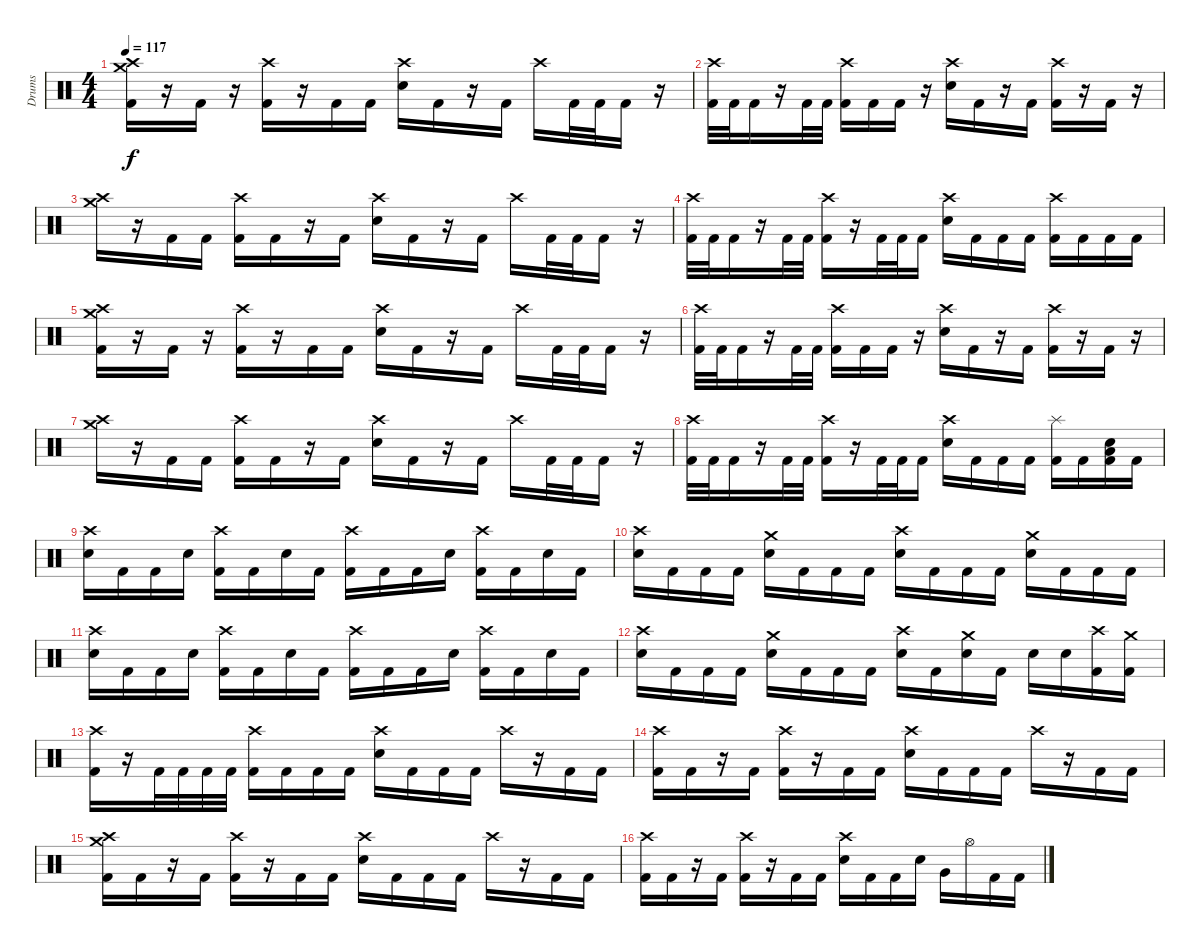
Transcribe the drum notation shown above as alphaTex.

\track ("Drums" "Drums") {instrument percussion}
\staff {score}
\articulation defaults
\ts (4 4)
\tempo 117
\clef neutral
\ks c
("Crash high (hit)" "Crash medium (hit)" "Kick (hit) 2").16{dy f} r.16 "Kick (hit) 2".16 r.16 ("Crash high (hit)" "Kick (hit) 2").16 r.16 "Kick (hit) 2".16 "Kick (hit) 2".16 ("Crash high (hit)" "Snare (hit) 2").16 "Kick (hit) 2".16 r.16 "Kick (hit) 2".16 "Crash high (hit)".16 "Kick (hit) 2".32 "Kick (hit) 2".32 "Kick (hit) 2".16 r.16 |
("Crash high (hit)" "Kick (hit) 2").32 "Kick (hit) 2".32 "Kick (hit) 2".16 r.16 "Kick (hit) 2".32 "Kick (hit) 2".32 ("Crash high (hit)" "Kick (hit) 2").16 "Kick (hit) 2".16 "Kick (hit) 2".16 r.16 ("Crash high (hit)" "Snare (hit) 2").16 "Kick (hit) 2".16 r.16 "Kick (hit) 2".16 ("Crash high (hit)" "Kick (hit) 2").16 r.16 "Kick (hit) 2".16 r.16 |
("Crash high (hit)" "Crash medium (hit)").16 r.16 "Kick (hit) 2".16 "Kick (hit) 2".16 ("Crash high (hit)" "Kick (hit) 2").16 "Kick (hit) 2".16 r.16 "Kick (hit) 2".16 ("Crash high (hit)" "Snare (hit) 2").16 "Kick (hit) 2".16 r.16 "Kick (hit) 2".16 "Crash high (hit)".16 "Kick (hit) 2".32 "Kick (hit) 2".32 "Kick (hit) 2".16 r.16 |
("Crash high (hit)" "Kick (hit) 2").32 "Kick (hit) 2".32 "Kick (hit) 2".16 r.16 "Kick (hit) 2".32 "Kick (hit) 2".32 ("Crash high (hit)" "Kick (hit) 2").16 r.16 "Kick (hit) 2".32 "Kick (hit) 2".32 "Kick (hit) 2".16 ("Crash high (hit)" "Snare (hit) 2").16 "Kick (hit) 2".16 "Kick (hit) 2".16 "Kick (hit) 2".16 ("Crash high (hit)" "Kick (hit) 2").16 "Kick (hit) 2".16 "Kick (hit) 2".16 "Kick (hit) 2".16 |
("Crash high (hit)" "Crash medium (hit)" "Kick (hit) 2").16 r.16 "Kick (hit) 2".16 r.16 ("Crash high (hit)" "Kick (hit) 2").16 r.16 "Kick (hit) 2".16 "Kick (hit) 2".16 ("Crash high (hit)" "Snare (hit) 2").16 "Kick (hit) 2".16 r.16 "Kick (hit) 2".16 "Crash high (hit)".16 "Kick (hit) 2".32 "Kick (hit) 2".32 "Kick (hit) 2".16 r.16 |
("Crash high (hit)" "Kick (hit) 2").32 "Kick (hit) 2".32 "Kick (hit) 2".16 r.16 "Kick (hit) 2".32 "Kick (hit) 2".32 ("Crash high (hit)" "Kick (hit) 2").16 "Kick (hit) 2".16 "Kick (hit) 2".16 r.16 ("Crash high (hit)" "Snare (hit) 2").16 "Kick (hit) 2".16 r.16 "Kick (hit) 2".16 ("Crash high (hit)" "Kick (hit) 2").16 r.16 "Kick (hit) 2".16 r.16 |
("Crash high (hit)" "Crash medium (hit)").16 r.16 "Kick (hit) 2".16 "Kick (hit) 2".16 ("Crash high (hit)" "Kick (hit) 2").16 "Kick (hit) 2".16 r.16 "Kick (hit) 2".16 ("Crash high (hit)" "Snare (hit) 2").16 "Kick (hit) 2".16 r.16 "Kick (hit) 2".16 "Crash high (hit)".16 "Kick (hit) 2".32 "Kick (hit) 2".32 "Kick (hit) 2".16 r.16 |
("Crash high (hit)" "Kick (hit) 2").32 "Kick (hit) 2".32 "Kick (hit) 2".16 r.16 "Kick (hit) 2".32 "Kick (hit) 2".32 ("Crash high (hit)" "Kick (hit) 2").16 r.16 "Kick (hit) 2".32 "Kick (hit) 2".32 "Kick (hit) 2".16 ("Crash high (hit)" "Snare (hit) 2").16 "Kick (hit) 2".16 "Kick (hit) 2".16 "Kick (hit) 2".16 ("Splash (hit)" "Kick (hit) 2").16 "Kick (hit) 2".16 ("Snare (hit) 2" "Low Floor Tom (hit)" "Kick (hit) 2").16 "Kick (hit) 2".16 |
("Crash high (hit)" "Snare (hit) 2").16 "Kick (hit) 2".16 "Kick (hit) 2".16 "Snare (hit) 2".16 ("Crash high (hit)" "Kick (hit) 2").16 "Kick (hit) 2".16 "Snare (hit) 2".16 "Kick (hit) 2".16 ("Crash high (hit)" "Kick (hit) 2").16 "Kick (hit) 2".16 "Kick (hit) 2".16 "Snare (hit) 2".16 ("Crash high (hit)" "Kick (hit) 2").16 "Kick (hit) 2".16 "Snare (hit) 2".16 "Kick (hit) 2".16 |
("Crash high (hit)" "Snare (hit) 2").16 "Kick (hit) 2".16 "Kick (hit) 2".16 "Kick (hit) 2".16 ("Crash medium (hit)" "Snare (hit) 2").16 "Kick (hit) 2".16 "Kick (hit) 2".16 "Kick (hit) 2".16 ("Crash high (hit)" "Snare (hit) 2").16 "Kick (hit) 2".16 "Kick (hit) 2".16 "Kick (hit) 2".16 ("Crash medium (hit)" "Snare (hit) 2").16 "Kick (hit) 2".16 "Kick (hit) 2".16 "Kick (hit) 2".16 |
("Crash high (hit)" "Snare (hit) 2").16 "Kick (hit) 2".16 "Kick (hit) 2".16 "Snare (hit) 2".16 ("Crash high (hit)" "Kick (hit) 2").16 "Kick (hit) 2".16 "Snare (hit) 2".16 "Kick (hit) 2".16 ("Crash high (hit)" "Kick (hit) 2").16 "Kick (hit) 2".16 "Kick (hit) 2".16 "Snare (hit) 2".16 ("Crash high (hit)" "Kick (hit) 2").16 "Kick (hit) 2".16 "Snare (hit) 2".16 "Kick (hit) 2".16 |
("Crash high (hit)" "Snare (hit) 2").16 "Kick (hit) 2".16 "Kick (hit) 2".16 "Kick (hit) 2".16 ("Crash medium (hit)" "Snare (hit) 2").16 "Kick (hit) 2".16 "Kick (hit) 2".16 "Kick (hit) 2".16 ("Crash high (hit)" "Snare (hit) 2").16 "Kick (hit) 2".16 ("Crash medium (hit)" "Snare (hit) 2").16 "Kick (hit) 2".16 "Snare (hit) 2".16 "Snare (hit) 2".16 ("Crash high (hit)" "Kick (hit) 2").16 ("Crash medium (hit)" "Kick (hit) 2").16 |
("Crash high (hit)" "Kick (hit) 2").16 r.16 "Kick (hit) 2".32 "Kick (hit) 2".32 "Kick (hit) 2".32 "Kick (hit) 2".32 ("Crash high (hit)" "Kick (hit) 2").16 "Kick (hit) 2".16 "Kick (hit) 2".16 "Kick (hit) 2".16 ("Crash high (hit)" "Snare (hit) 2").16 "Kick (hit) 2".16 "Kick (hit) 2".16 "Kick (hit) 2".16 "Crash high (hit)".16 r.16 "Kick (hit) 2".16 "Kick (hit) 2".16 |
("Crash high (hit)" "Kick (hit) 2").16 "Kick (hit) 2".16 r.16 "Kick (hit) 2".16 ("Crash high (hit)" "Kick (hit) 2").16 r.16 "Kick (hit) 2".16 "Kick (hit) 2".16 ("Crash high (hit)" "Snare (hit) 2").16 "Kick (hit) 2".16 "Kick (hit) 2".16 "Kick (hit) 2".16 "Crash high (hit)".16 r.16 "Kick (hit) 2".16 "Kick (hit) 2".16 |
("Crash high (hit)" "Crash medium (hit)" "Kick (hit) 2").16 "Kick (hit) 2".16 r.16 "Kick (hit) 2".16 ("Crash high (hit)" "Kick (hit) 2").16 r.16 "Kick (hit) 2".16 "Kick (hit) 2".16 ("Crash high (hit)" "Snare (hit) 2").16 "Kick (hit) 2".16 "Kick (hit) 2".16 "Kick (hit) 2".16 "Crash high (hit)".16 r.16 "Kick (hit) 2".16 "Kick (hit) 2".16 |
("Crash high (hit)" "Kick (hit) 2").16 "Kick (hit) 2".16 r.16 "Kick (hit) 2".16 ("Crash high (hit)" "Kick (hit) 2").16 r.16 "Kick (hit) 2".16 "Kick (hit) 2".16 ("Crash high (hit)" "Snare (hit) 2").16 "Kick (hit) 2".16 "Kick (hit) 2".16 "Snare (hit) 2".16 "Very Low Tom (hit)".16 "Hi-Hat (open)".16 "Kick (hit) 2".16 "Kick (hit) 2".16
